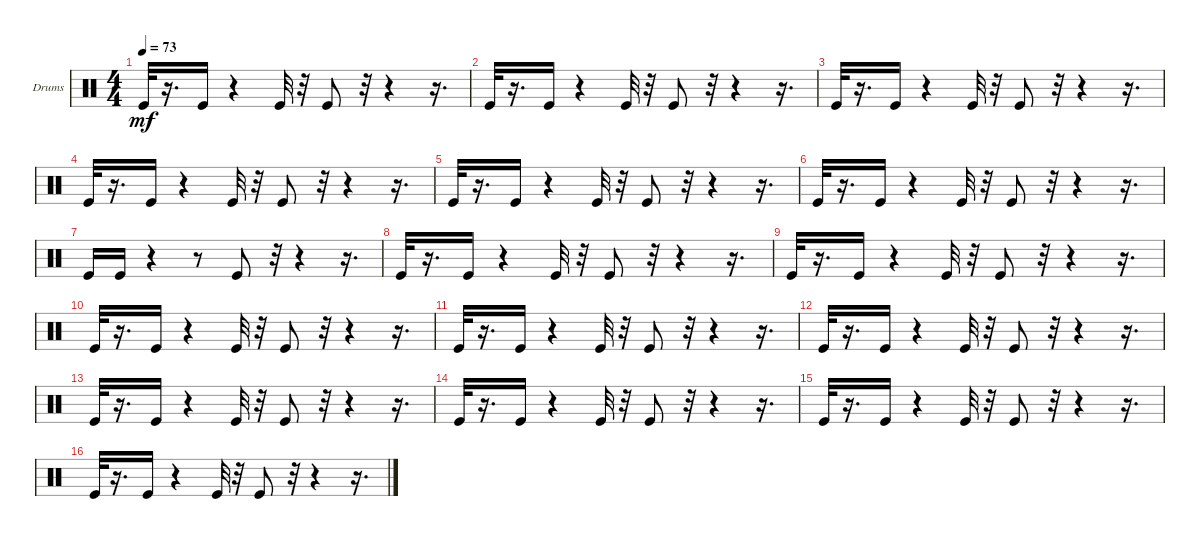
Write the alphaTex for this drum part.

\bracketExtendMode groupsimilarinstruments
\firstSystemTrackNameOrientation horizontal
\otherSystemsTrackNameOrientation horizontal
\track ("kick" "Drums") {instrument percussion}
\staff {score}
\articulation defaults
\ts (4 4)
\tempo 73
\clef neutral
\ks c "Kick (hit)".32{dy mf}
r.16{d} "Kick (hit)".16 r.4 "Kick (hit)".32 r.32 "Kick (hit)".8 r.32 r.4 r.16{d} |
"Kick (hit)".32 r.16{d} "Kick (hit)".16 r.4 "Kick (hit)".32 r.32 "Kick (hit)".8 r.32 r.4 r.16{d} |
"Kick (hit)".32 r.16{d} "Kick (hit)".16 r.4 "Kick (hit)".32 r.32 "Kick (hit)".8 r.32 r.4 r.16{d} |
"Kick (hit)".32 r.16{d} "Kick (hit)".16 r.4 "Kick (hit)".32 r.32 "Kick (hit)".8 r.32 r.4 r.16{d} |
"Kick (hit)".32 r.16{d} "Kick (hit)".16 r.4 "Kick (hit)".32 r.32 "Kick (hit)".8 r.32 r.4 r.16{d} |
"Kick (hit)".32 r.16{d} "Kick (hit)".16 r.4 "Kick (hit)".32 r.32 "Kick (hit)".8 r.32 r.4 r.16{d} |
"Kick (hit)".16 "Kick (hit)".16 r.4 r.8 "Kick (hit)".8 r.32 r.4 r.16{d} |
"Kick (hit)".32 r.16{d} "Kick (hit)".16 r.4 "Kick (hit)".32 r.32 "Kick (hit)".8 r.32 r.4 r.16{d} |
"Kick (hit)".32 r.16{d} "Kick (hit)".16 r.4 "Kick (hit)".32 r.32 "Kick (hit)".8 r.32 r.4 r.16{d} |
"Kick (hit)".32 r.16{d} "Kick (hit)".16 r.4 "Kick (hit)".32 r.32 "Kick (hit)".8 r.32 r.4 r.16{d} |
"Kick (hit)".32 r.16{d} "Kick (hit)".16 r.4 "Kick (hit)".32 r.32 "Kick (hit)".8 r.32 r.4 r.16{d} |
"Kick (hit)".32 r.16{d} "Kick (hit)".16 r.4 "Kick (hit)".32 r.32 "Kick (hit)".8 r.32 r.4 r.16{d} |
"Kick (hit)".32 r.16{d} "Kick (hit)".16 r.4 "Kick (hit)".32 r.32 "Kick (hit)".8 r.32 r.4 r.16{d} |
"Kick (hit)".32 r.16{d} "Kick (hit)".16 r.4 "Kick (hit)".32 r.32 "Kick (hit)".8 r.32 r.4 r.16{d} |
"Kick (hit)".32 r.16{d} "Kick (hit)".16 r.4 "Kick (hit)".32 r.32 "Kick (hit)".8 r.32 r.4 r.16{d} |
"Kick (hit)".32 r.16{d} "Kick (hit)".16 r.4 "Kick (hit)".32 r.32 "Kick (hit)".8 r.32 r.4 r.16{d}
